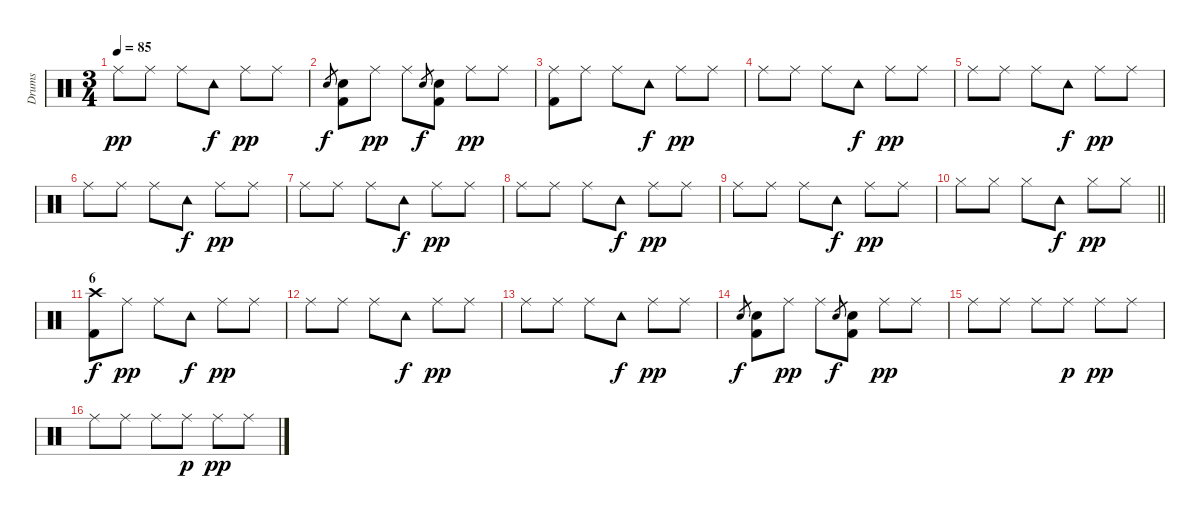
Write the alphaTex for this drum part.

\track ("Drums" "Drums") {instrument percussion}
\staff {score}
\articulation defaults
\ts (3 4)
\tempo 85
\clef neutral
\ks c "Ride (middle)".8{dy pp} "Ride (middle)".8 "Ride (middle)".8 "Tambourine (hit)".8{dy f} "Ride (middle)".8{dy pp} "Ride (middle)".8
|
"Electric Snare (hit)".8{gr dy f} ("Electric Snare (hit)" "Kick (hit) 2").8 "Ride (middle)".8{dy pp} "Ride (middle)".8 "Electric Snare (hit)".8{gr dy f} ("Electric Snare (hit)" "Kick (hit) 2").8 "Ride (middle)".8{dy pp} "Ride (middle)".8 |
("Ride (middle)" "Kick (hit) 2").8 "Ride (middle)".8 "Ride (middle)".8 "Tambourine (hit)".8{dy f} "Ride (middle)".8{dy pp} "Ride (middle)".8 |
"Ride (middle)".8 "Ride (middle)".8 "Ride (middle)".8 "Tambourine (hit)".8{dy f} "Ride (middle)".8{dy pp} "Ride (middle)".8 |
"Ride (middle)".8 "Ride (middle)".8 "Ride (middle)".8 "Tambourine (hit)".8{dy f} "Ride (middle)".8{dy pp} "Ride (middle)".8 |
"Ride (middle)".8 "Ride (middle)".8 "Ride (middle)".8 "Tambourine (hit)".8{dy f} "Ride (middle)".8{dy pp} "Ride (middle)".8 |
"Ride (middle)".8 "Ride (middle)".8 "Ride (middle)".8 "Tambourine (hit)".8{dy f} "Ride (middle)".8{dy pp} "Ride (middle)".8 |
"Ride (middle)".8 "Ride (middle)".8 "Ride (middle)".8 "Tambourine (hit)".8{dy f} "Ride (middle)".8{dy pp} "Ride (middle)".8 |
"Ride (middle)".8 "Ride (middle)".8 "Ride (middle)".8 "Tambourine (hit)".8{dy f} "Ride (middle)".8{dy pp} "Ride (middle)".8 |
\barLineRight lightlight "Hi-Hat (closed)".8 "Hi-Hat (closed)".8 "Hi-Hat (closed)".8 "Tambourine (hit)".8{dy f} "Hi-Hat (closed)".8{dy pp} "Hi-Hat (closed)".8
|
\section ("" "6")
("Crash high (hit)" "Kick (hit) 2").8{dy f} "Ride (middle)".8{dy pp} "Ride (middle)".8 "Tambourine (hit)".8{dy f} "Ride (middle)".8{dy pp} "Ride (middle)".8 |
"Ride (middle)".8 "Ride (middle)".8 "Ride (middle)".8 "Tambourine (hit)".8{dy f} "Ride (middle)".8{dy pp} "Ride (middle)".8 |
"Ride (middle)".8 "Ride (middle)".8 "Ride (middle)".8 "Tambourine (hit)".8{dy f} "Ride (middle)".8{dy pp} "Ride (middle)".8 |
"Electric Snare (hit)".8{gr dy f} ("Electric Snare (hit)" "Kick (hit) 2").8 "Ride (middle)".8{dy pp} "Ride (middle)".8 "Electric Snare (hit)".8{gr dy f} ("Electric Snare (hit)" "Kick (hit) 2").8 "Ride (middle)".8{dy pp} "Ride (middle)".8 |
"Ride (middle)".8 "Ride (middle)".8 "Ride (middle)".8 "Ride (middle)".8{dy p} "Ride (middle)".8{dy pp} "Ride (middle)".8 |
"Ride (middle)".8 "Ride (middle)".8 "Ride (middle)".8 "Ride (middle)".8{dy p} "Ride (middle)".8{dy pp} "Ride (middle)".8
